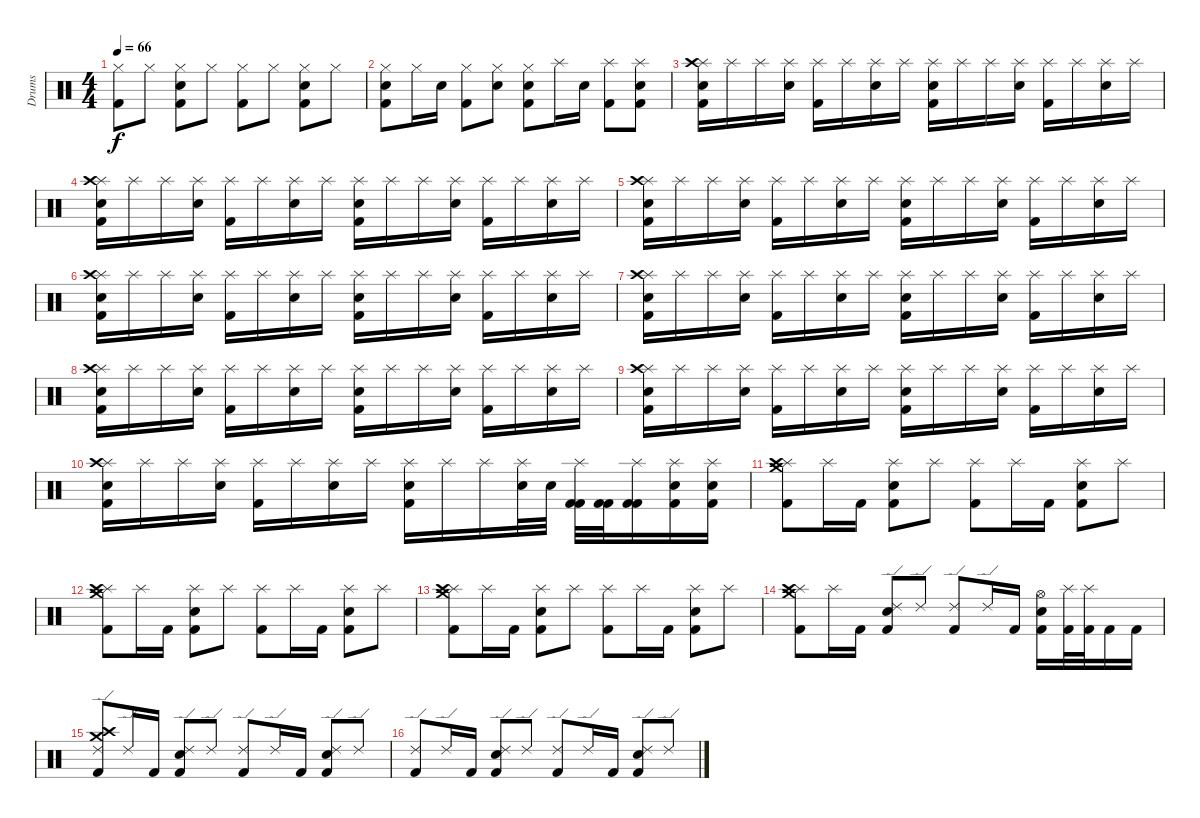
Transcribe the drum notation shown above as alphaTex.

\track ("Drums" "Drums") {instrument percussion}
\staff {score}
\articulation defaults
\ts (4 4)
\tempo 66
\clef neutral
\ks c
("Kick (hit) 2" "Hi-Hat (closed)").8{dy f} "Hi-Hat (closed)".8 ("Kick (hit) 2" "Hi-Hat (closed)" "Snare (hit) 2").8 "Hi-Hat (closed)".8 ("Kick (hit) 2" "Hi-Hat (closed)").8 "Hi-Hat (closed)".8 ("Kick (hit) 2" "Hi-Hat (closed)" "Snare (hit) 2").8 "Hi-Hat (closed)".8 |
("Kick (hit) 2" "Hi-Hat (closed)" "Snare (hit) 2").8 "Hi-Hat (closed)".16 "Snare (hit) 2".16 ("Kick (hit) 2" "Hi-Hat (closed)").8 ("Hi-Hat (closed)" "Snare (hit) 2").8 ("Kick (hit) 2" "Hi-Hat (closed)" "Snare (hit) 2").8 "Splash (hit)".16 "Snare (hit) 2".16 ("Kick (hit) 2" "Splash (hit)").8 ("Kick (hit) 2" "Splash (hit)" "Snare (hit) 2").8 |
("Kick (hit) 2" "Splash (hit)" "Snare (hit) 2" "Crash high (hit)").16 "Splash (hit)".16 "Splash (hit)".16 ("Splash (hit)" "Snare (hit) 2").16 ("Kick (hit) 2" "Splash (hit)").16 "Splash (hit)".16 ("Splash (hit)" "Snare (hit) 2").16 "Splash (hit)".16 ("Kick (hit) 2" "Splash (hit)" "Snare (hit) 2").16 "Splash (hit)".16 "Splash (hit)".16 ("Splash (hit)" "Snare (hit) 2").16 ("Kick (hit) 2" "Splash (hit)").16 "Splash (hit)".16 ("Splash (hit)" "Snare (hit) 2").16 "Splash (hit)".16 |
("Kick (hit) 2" "Splash (hit)" "Snare (hit) 2" "Crash high (hit)").16 "Splash (hit)".16 "Splash (hit)".16 ("Splash (hit)" "Snare (hit) 2").16 ("Kick (hit) 2" "Splash (hit)").16 "Splash (hit)".16 ("Splash (hit)" "Snare (hit) 2").16 "Splash (hit)".16 ("Kick (hit) 2" "Splash (hit)" "Snare (hit) 2").16 "Splash (hit)".16 "Splash (hit)".16 ("Splash (hit)" "Snare (hit) 2").16 ("Kick (hit) 2" "Splash (hit)").16 "Splash (hit)".16 ("Splash (hit)" "Snare (hit) 2").16 "Splash (hit)".16 |
("Kick (hit) 2" "Splash (hit)" "Snare (hit) 2" "Crash high (hit)").16 "Splash (hit)".16 "Splash (hit)".16 ("Splash (hit)" "Snare (hit) 2").16 ("Kick (hit) 2" "Splash (hit)").16 "Splash (hit)".16 ("Splash (hit)" "Snare (hit) 2").16 "Splash (hit)".16 ("Kick (hit) 2" "Splash (hit)" "Snare (hit) 2").16 "Splash (hit)".16 "Splash (hit)".16 ("Splash (hit)" "Snare (hit) 2").16 ("Kick (hit) 2" "Splash (hit)").16 "Splash (hit)".16 ("Splash (hit)" "Snare (hit) 2").16 "Splash (hit)".16 |
("Kick (hit) 2" "Splash (hit)" "Snare (hit) 2" "Crash high (hit)").16 "Splash (hit)".16 "Splash (hit)".16 ("Splash (hit)" "Snare (hit) 2").16 ("Kick (hit) 2" "Splash (hit)").16 "Splash (hit)".16 ("Splash (hit)" "Snare (hit) 2").16 "Splash (hit)".16 ("Kick (hit) 2" "Splash (hit)" "Snare (hit) 2").16 "Splash (hit)".16 "Splash (hit)".16 ("Splash (hit)" "Snare (hit) 2").16 ("Kick (hit) 2" "Splash (hit)").16 "Splash (hit)".16 ("Splash (hit)" "Snare (hit) 2").16 "Splash (hit)".16 |
("Kick (hit) 2" "Splash (hit)" "Snare (hit) 2" "Crash high (hit)").16 "Splash (hit)".16 "Splash (hit)".16 ("Splash (hit)" "Snare (hit) 2").16 ("Kick (hit) 2" "Splash (hit)").16 "Splash (hit)".16 ("Splash (hit)" "Snare (hit) 2").16 "Splash (hit)".16 ("Kick (hit) 2" "Splash (hit)" "Snare (hit) 2").16 "Splash (hit)".16 "Splash (hit)".16 ("Splash (hit)" "Snare (hit) 2").16 ("Kick (hit) 2" "Splash (hit)").16 "Splash (hit)".16 ("Splash (hit)" "Snare (hit) 2").16 "Splash (hit)".16 |
("Kick (hit) 2" "Splash (hit)" "Snare (hit) 2" "Crash high (hit)").16 "Splash (hit)".16 "Splash (hit)".16 ("Splash (hit)" "Snare (hit) 2").16 ("Kick (hit) 2" "Splash (hit)").16 "Splash (hit)".16 ("Splash (hit)" "Snare (hit) 2").16 "Splash (hit)".16 ("Kick (hit) 2" "Splash (hit)" "Snare (hit) 2").16 "Splash (hit)".16 "Splash (hit)".16 ("Splash (hit)" "Snare (hit) 2").16 ("Kick (hit) 2" "Splash (hit)").16 "Splash (hit)".16 ("Splash (hit)" "Snare (hit) 2").16 "Splash (hit)".16 |
("Kick (hit) 2" "Splash (hit)" "Snare (hit) 2" "Crash high (hit)").16 "Splash (hit)".16 "Splash (hit)".16 ("Splash (hit)" "Snare (hit) 2").16 ("Kick (hit) 2" "Splash (hit)").16 "Splash (hit)".16 ("Splash (hit)" "Snare (hit) 2").16 "Splash (hit)".16 ("Kick (hit) 2" "Splash (hit)" "Snare (hit) 2").16 "Splash (hit)".16 "Splash (hit)".16 ("Splash (hit)" "Snare (hit) 2").16 ("Kick (hit) 2" "Splash (hit)").16 "Splash (hit)".16 ("Splash (hit)" "Snare (hit) 2").16 "Splash (hit)".16 |
("Kick (hit) 2" "Splash (hit)" "Snare (hit) 2" "Crash high (hit)").16 "Splash (hit)".16 "Splash (hit)".16 ("Splash (hit)" "Snare (hit) 2").16 ("Kick (hit) 2" "Splash (hit)").16 "Splash (hit)".16 ("Splash (hit)" "Snare (hit) 2").16 "Splash (hit)".16 ("Kick (hit) 2" "Splash (hit)" "Snare (hit) 2").16 "Splash (hit)".16 "Splash (hit)".16 ("Splash (hit)" "Snare (hit) 2").32 "Snare (hit) 2".32 ("Kick (hit) 2" "Splash (hit)" "Kick (hit) 2").32 ("Kick (hit) 2" "Kick (hit) 2").32 ("Kick (hit) 2" "Splash (hit)" "Kick (hit) 2").16 ("Kick (hit) 2" "Splash (hit)" "Snare (hit) 2").16 ("Kick (hit) 2" "Splash (hit)" "Snare (hit) 2").16 |
("Kick (hit) 2" "Splash (hit)" "Crash medium (hit)" "Crash high (hit)").8 "Splash (hit)".16 "Kick (hit) 2".16 ("Kick (hit) 2" "Splash (hit)" "Snare (hit) 2").8 "Splash (hit)".8 ("Kick (hit) 2" "Splash (hit)").8 "Splash (hit)".16 "Kick (hit) 2".16 ("Kick (hit) 2" "Splash (hit)" "Snare (hit) 2").8 "Splash (hit)".8 |
("Kick (hit) 2" "Splash (hit)" "Crash medium (hit)" "Crash high (hit)").8 "Splash (hit)".16 "Kick (hit) 2".16 ("Kick (hit) 2" "Splash (hit)" "Snare (hit) 2").8 "Splash (hit)".8 ("Kick (hit) 2" "Splash (hit)").8 "Splash (hit)".16 "Kick (hit) 2".16 ("Kick (hit) 2" "Splash (hit)" "Snare (hit) 2").8 "Splash (hit)".8 |
("Kick (hit) 2" "Splash (hit)" "Crash medium (hit)" "Crash high (hit)").8 "Splash (hit)".16 "Kick (hit) 2".16 ("Kick (hit) 2" "Splash (hit)" "Snare (hit) 2").8 "Splash (hit)".8 ("Kick (hit) 2" "Splash (hit)").8 "Splash (hit)".16 "Kick (hit) 2".16 ("Kick (hit) 2" "Splash (hit)" "Snare (hit) 2").8 "Splash (hit)".8 |
("Kick (hit) 2" "Splash (hit)" "Crash medium (hit)" "Crash high (hit)").8 "Splash (hit)".16 "Kick (hit) 2".16 ("Kick (hit) 2" "Ride (edge) 2" "Snare (hit) 2").8 "Ride (edge) 2".8 ("Kick (hit) 2" "Ride (edge) 2").8 "Ride (edge) 2".16 "Kick (hit) 2".16 ("Kick (hit) 2" "Hi-Hat (open)" "Snare (hit) 2").16 ("Kick (hit) 2" "Splash (hit)").32 ("Kick (hit) 2" "Splash (hit)").32 "Kick (hit) 2".16 "Kick (hit) 2".16 |
("Kick (hit) 2" "Ride (edge) 2" "Crash medium (hit)" "Crash high (hit)").8 "Ride (edge) 2".16 "Kick (hit) 2".16 ("Kick (hit) 2" "Ride (edge) 2" "Snare (hit) 2").8 "Ride (edge) 2".8 ("Kick (hit) 2" "Ride (edge) 2").8 "Ride (edge) 2".16 "Kick (hit) 2".16 ("Kick (hit) 2" "Ride (edge) 2" "Snare (hit) 2").8 "Ride (edge) 2".8 |
("Kick (hit) 2" "Ride (edge) 2").8 "Ride (edge) 2".16 "Kick (hit) 2".16 ("Kick (hit) 2" "Ride (edge) 2" "Snare (hit) 2").8 "Ride (edge) 2".8 ("Kick (hit) 2" "Ride (edge) 2").8 "Ride (edge) 2".16 "Kick (hit) 2".16 ("Kick (hit) 2" "Ride (edge) 2" "Snare (hit) 2").8 "Ride (edge) 2".8
